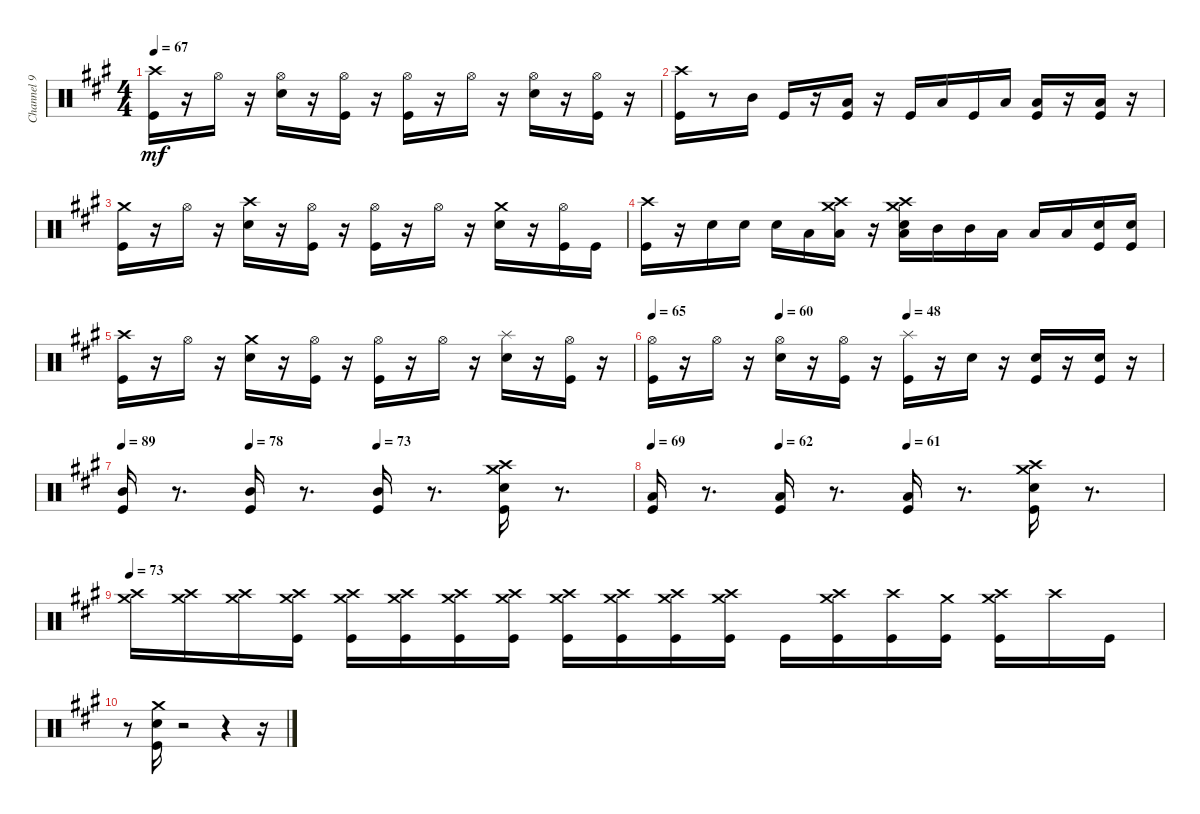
\track ("Channel 9" "Channel 9") {instrument percussion}
\staff {score}
\articulation defaults
\ts (4 4)
\tempo 67
\clef neutral
\ks f#minor
("Kick (hit)" "Crash high (hit)").16{dy mf} r.16 "Hi-Hat (open)".16 r.16 ("Electric Snare (hit)" "Hi-Hat (open)").16 r.16 ("Kick (hit)" "Hi-Hat (open)").16 r.16 ("Kick (hit)" "Hi-Hat (open)").16 r.16 "Hi-Hat (open)".16 r.16 ("Electric Snare (hit)" "Hi-Hat (open)").16 r.16 ("Kick (hit)" "Hi-Hat (open)").16 r.16 |
("Kick (hit)" "Crash high (hit)").16 r.8 "Mid Tom (hit)".16 "Kick (hit)".16 r.16 ("Kick (hit)" "Low Tom (hit)").16 r.16 "Kick (hit)".16 "Low Tom (hit)".16 "Kick (hit)".16 "Low Tom (hit)".16 ("Kick (hit)" "Low Tom (hit)").16 r.16 ("Kick (hit)" "Low Floor Tom (hit)").16 r.16 |
("Kick (hit)" "Crash medium (hit)").16 r.16 "Hi-Hat (open)".16 r.16 ("Electric Snare (hit)" "Crash high (hit)").16 r.16 ("Kick (hit)" "Hi-Hat (open)").16 r.16 ("Kick (hit)" "Hi-Hat (open)").16 r.16 "Hi-Hat (open)".16 r.16 ("Electric Snare (hit)" "Crash medium (hit)").16 r.16 ("Kick (hit)" "Hi-Hat (open)").16 "Kick (hit)".16 |
("Kick (hit)" "Crash high (hit)").16 r.16 "Electric Snare (hit)".16 "Electric Snare (hit)".16 "Electric Snare (hit)".16 "Low Tom (hit)".16 ("Low Tom (hit)" "Crash high (hit)" "Crash medium (hit)").16 r.16 ("Electric Snare (hit)" "Low Tom (hit)" "Crash high (hit)" "Crash medium (hit)").16 "Mid Tom (hit)".16 "Mid Tom (hit)".16 "Low Tom (hit)".16 "Low Tom (hit)".16 "Low Tom (hit)".16 ("Kick (hit)" "Electric Snare (hit)").16 ("Kick (hit)" "Electric Snare (hit)").16 |
("Kick (hit)" "Crash high (hit)").16 r.16 "Hi-Hat (open)".16 r.16 ("Electric Snare (hit)" "Crash medium (hit)").16 r.16 ("Kick (hit)" "Hi-Hat (open)").16 r.16 ("Kick (hit)" "Hi-Hat (open)").16 r.16 "Hi-Hat (open)".16 r.16 ("Electric Snare (hit)" "Splash (hit)").16 r.16 ("Kick (hit)" "Hi-Hat (open)").16 r.16 |
\tempo 65
\tempo (60 0.25)
\tempo (48 0.5)
("Kick (hit)" "Hi-Hat (open)").16 r.16 "Hi-Hat (open)".16 r.16 ("Electric Snare (hit)" "Hi-Hat (open)").16 r.16 ("Kick (hit)" "Hi-Hat (open)").16 r.16 ("Kick (hit)" "Splash (hit)").16 r.16 "Electric Snare (hit)".16 r.16 ("Kick (hit)" "Electric Snare (hit)").16 r.16 ("Kick (hit)" "Electric Snare (hit)").16 r.16 |
\tempo 89
\tempo (78 0.25)
\tempo (73 0.5)
("Kick (hit)" "Mid Tom (hit)").16 r.8{d} ("Kick (hit)" "Mid Tom (hit)").16 r.8{d} ("Kick (hit)" "Mid Tom (hit)").16 r.8{d} ("Kick (hit)" "Electric Snare (hit)" "Crash high (hit)" "Crash medium (hit)").16 r.8{d} |
\tempo 69
\tempo (62 0.25)
\tempo (61 0.5)
("Kick (hit)" "Low Tom (hit)").16 r.8{d} ("Kick (hit)" "Low Tom (hit)").16 r.8{d} ("Kick (hit)" "Low Tom (hit)").16 r.8{d} ("Kick (hit)" "Electric Snare (hit)" "Crash high (hit)" "Crash medium (hit)").16 r.8{d} |
\tempo 73
("Crash high (hit)" "Crash medium (hit)").16 ("Crash high (hit)" "Crash medium (hit)").16 ("Crash high (hit)" "Crash medium (hit)").16 ("Kick (hit)" "Crash high (hit)" "Crash medium (hit)").16 ("Kick (hit)" "Crash high (hit)" "Crash medium (hit)").16 ("Kick (hit)" "Crash high (hit)" "Crash medium (hit)").16 ("Kick (hit)" "Crash high (hit)" "Crash medium (hit)").16 ("Kick (hit)" "Crash high (hit)" "Crash medium (hit)").16 ("Kick (hit)" "Crash high (hit)" "Crash medium (hit)").16 ("Kick (hit)" "Crash high (hit)" "Crash medium (hit)").16 ("Kick (hit)" "Crash high (hit)" "Crash medium (hit)").16 ("Kick (hit)" "Crash high (hit)" "Crash medium (hit)").16 "Kick (hit)".16 ("Kick (hit)" "Crash high (hit)" "Crash medium (hit)").16 ("Kick (hit)" "Crash high (hit)").16 ("Kick (hit)" "Crash medium (hit)").16 ("Kick (hit)" "Crash high (hit)" "Crash medium (hit)").16 "Crash high (hit)".16 "Kick (hit)".16 |
r.8 ("Kick (hit)" "Electric Snare (hit)" "Crash medium (hit)").16 r.2 r.4 r.16
